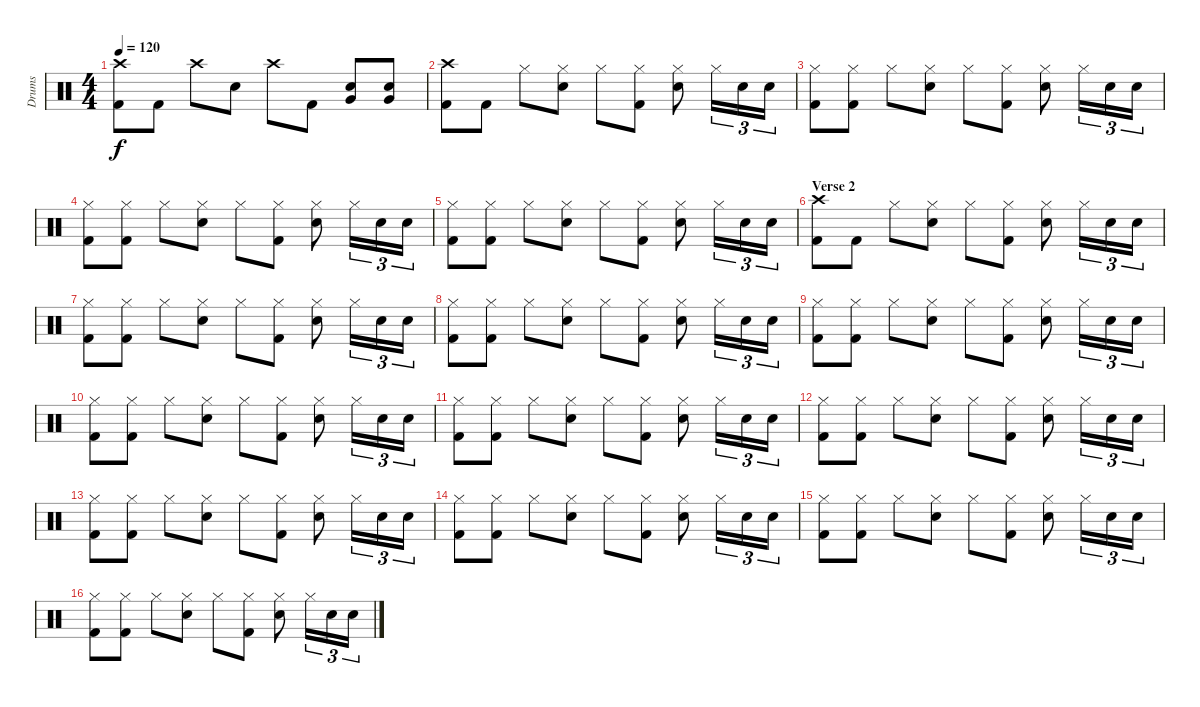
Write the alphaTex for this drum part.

\track ("Drums" "Drums") {instrument percussion}
\staff {score}
\articulation defaults
\ts (4 4)
\tempo 120
\clef neutral
\ks c
("Crash high (hit)" "Kick (hit) 2").8{dy f} "Kick (hit) 2".8 "Crash high (hit)".8 "Snare (hit) 2".8 "Crash high (hit)".8 "Kick (hit) 2".8 ("Snare (hit) 2" "Very Low Tom (hit)").8 ("Snare (hit) 2" "Very Low Tom (hit)").8 |
("Crash high (hit)" "Kick (hit) 2").8 "Kick (hit) 2".8 "Hi-Hat (closed)".8 ("Hi-Hat (closed)" "Snare (hit) 2").8 "Hi-Hat (closed)".8 ("Hi-Hat (closed)" "Kick (hit) 2").8 ("Hi-Hat (closed)" "Snare (hit) 2").8 "Hi-Hat (closed)".16{tu (3 2)} "Snare (hit) 2".16{tu (3 2)} "Snare (hit) 2".16{tu (3 2)} |
("Hi-Hat (closed)" "Kick (hit) 2").8 ("Hi-Hat (closed)" "Kick (hit) 2").8 "Hi-Hat (closed)".8 ("Hi-Hat (closed)" "Snare (hit) 2").8 "Hi-Hat (closed)".8 ("Hi-Hat (closed)" "Kick (hit) 2").8 ("Hi-Hat (closed)" "Snare (hit) 2").8 "Hi-Hat (closed)".16{tu (3 2)} "Snare (hit) 2".16{tu (3 2)} "Snare (hit) 2".16{tu (3 2)} |
("Hi-Hat (closed)" "Kick (hit) 2").8 ("Hi-Hat (closed)" "Kick (hit) 2").8 "Hi-Hat (closed)".8 ("Hi-Hat (closed)" "Snare (hit) 2").8 "Hi-Hat (closed)".8 ("Hi-Hat (closed)" "Kick (hit) 2").8 ("Hi-Hat (closed)" "Snare (hit) 2").8 "Hi-Hat (closed)".16{tu (3 2)} "Snare (hit) 2".16{tu (3 2)} "Snare (hit) 2".16{tu (3 2)} |
("Hi-Hat (closed)" "Kick (hit) 2").8 ("Hi-Hat (closed)" "Kick (hit) 2").8 "Hi-Hat (closed)".8 ("Hi-Hat (closed)" "Snare (hit) 2").8 "Hi-Hat (closed)".8 ("Hi-Hat (closed)" "Kick (hit) 2").8 ("Hi-Hat (closed)" "Snare (hit) 2").8 "Hi-Hat (closed)".16{tu (3 2)} "Snare (hit) 2".16{tu (3 2)} "Snare (hit) 2".16{tu (3 2)} |
\section ("" "Verse 2")
("Crash high (hit)" "Kick (hit) 2").8 "Kick (hit) 2".8 "Hi-Hat (closed)".8 ("Hi-Hat (closed)" "Snare (hit) 2").8 "Hi-Hat (closed)".8 ("Hi-Hat (closed)" "Kick (hit) 2").8 ("Hi-Hat (closed)" "Snare (hit) 2").8 "Hi-Hat (closed)".16{tu (3 2)} "Snare (hit) 2".16{tu (3 2)} "Snare (hit) 2".16{tu (3 2)} |
("Hi-Hat (closed)" "Kick (hit) 2").8 ("Hi-Hat (closed)" "Kick (hit) 2").8 "Hi-Hat (closed)".8 ("Hi-Hat (closed)" "Snare (hit) 2").8 "Hi-Hat (closed)".8 ("Hi-Hat (closed)" "Kick (hit) 2").8 ("Hi-Hat (closed)" "Snare (hit) 2").8 "Hi-Hat (closed)".16{tu (3 2)} "Snare (hit) 2".16{tu (3 2)} "Snare (hit) 2".16{tu (3 2)} |
("Hi-Hat (closed)" "Kick (hit) 2").8 ("Hi-Hat (closed)" "Kick (hit) 2").8 "Hi-Hat (closed)".8 ("Hi-Hat (closed)" "Snare (hit) 2").8 "Hi-Hat (closed)".8 ("Hi-Hat (closed)" "Kick (hit) 2").8 ("Hi-Hat (closed)" "Snare (hit) 2").8 "Hi-Hat (closed)".16{tu (3 2)} "Snare (hit) 2".16{tu (3 2)} "Snare (hit) 2".16{tu (3 2)} |
("Hi-Hat (closed)" "Kick (hit) 2").8 ("Hi-Hat (closed)" "Kick (hit) 2").8 "Hi-Hat (closed)".8 ("Hi-Hat (closed)" "Snare (hit) 2").8 "Hi-Hat (closed)".8 ("Hi-Hat (closed)" "Kick (hit) 2").8 ("Hi-Hat (closed)" "Snare (hit) 2").8 "Hi-Hat (closed)".16{tu (3 2)} "Snare (hit) 2".16{tu (3 2)} "Snare (hit) 2".16{tu (3 2)} |
("Hi-Hat (closed)" "Kick (hit) 2").8 ("Hi-Hat (closed)" "Kick (hit) 2").8 "Hi-Hat (closed)".8 ("Hi-Hat (closed)" "Snare (hit) 2").8 "Hi-Hat (closed)".8 ("Hi-Hat (closed)" "Kick (hit) 2").8 ("Hi-Hat (closed)" "Snare (hit) 2").8 "Hi-Hat (closed)".16{tu (3 2)} "Snare (hit) 2".16{tu (3 2)} "Snare (hit) 2".16{tu (3 2)} |
("Hi-Hat (closed)" "Kick (hit) 2").8 ("Hi-Hat (closed)" "Kick (hit) 2").8 "Hi-Hat (closed)".8 ("Hi-Hat (closed)" "Snare (hit) 2").8 "Hi-Hat (closed)".8 ("Hi-Hat (closed)" "Kick (hit) 2").8 ("Hi-Hat (closed)" "Snare (hit) 2").8 "Hi-Hat (closed)".16{tu (3 2)} "Snare (hit) 2".16{tu (3 2)} "Snare (hit) 2".16{tu (3 2)} |
("Hi-Hat (closed)" "Kick (hit) 2").8 ("Hi-Hat (closed)" "Kick (hit) 2").8 "Hi-Hat (closed)".8 ("Hi-Hat (closed)" "Snare (hit) 2").8 "Hi-Hat (closed)".8 ("Hi-Hat (closed)" "Kick (hit) 2").8 ("Hi-Hat (closed)" "Snare (hit) 2").8 "Hi-Hat (closed)".16{tu (3 2)} "Snare (hit) 2".16{tu (3 2)} "Snare (hit) 2".16{tu (3 2)} |
("Hi-Hat (closed)" "Kick (hit) 2").8 ("Hi-Hat (closed)" "Kick (hit) 2").8 "Hi-Hat (closed)".8 ("Hi-Hat (closed)" "Snare (hit) 2").8 "Hi-Hat (closed)".8 ("Hi-Hat (closed)" "Kick (hit) 2").8 ("Hi-Hat (closed)" "Snare (hit) 2").8 "Hi-Hat (closed)".16{tu (3 2)} "Snare (hit) 2".16{tu (3 2)} "Snare (hit) 2".16{tu (3 2)} |
("Hi-Hat (closed)" "Kick (hit) 2").8 ("Hi-Hat (closed)" "Kick (hit) 2").8 "Hi-Hat (closed)".8 ("Hi-Hat (closed)" "Snare (hit) 2").8 "Hi-Hat (closed)".8 ("Hi-Hat (closed)" "Kick (hit) 2").8 ("Hi-Hat (closed)" "Snare (hit) 2").8 "Hi-Hat (closed)".16{tu (3 2)} "Snare (hit) 2".16{tu (3 2)} "Snare (hit) 2".16{tu (3 2)} |
("Hi-Hat (closed)" "Kick (hit) 2").8 ("Hi-Hat (closed)" "Kick (hit) 2").8 "Hi-Hat (closed)".8 ("Hi-Hat (closed)" "Snare (hit) 2").8 "Hi-Hat (closed)".8 ("Hi-Hat (closed)" "Kick (hit) 2").8 ("Hi-Hat (closed)" "Snare (hit) 2").8 "Hi-Hat (closed)".16{tu (3 2)} "Snare (hit) 2".16{tu (3 2)} "Snare (hit) 2".16{tu (3 2)} |
("Hi-Hat (closed)" "Kick (hit) 2").8 ("Hi-Hat (closed)" "Kick (hit) 2").8 "Hi-Hat (closed)".8 ("Hi-Hat (closed)" "Snare (hit) 2").8 "Hi-Hat (closed)".8 ("Hi-Hat (closed)" "Kick (hit) 2").8 ("Hi-Hat (closed)" "Snare (hit) 2").8 "Hi-Hat (closed)".16{tu (3 2)} "Snare (hit) 2".16{tu (3 2)} "Snare (hit) 2".16{tu (3 2)}
